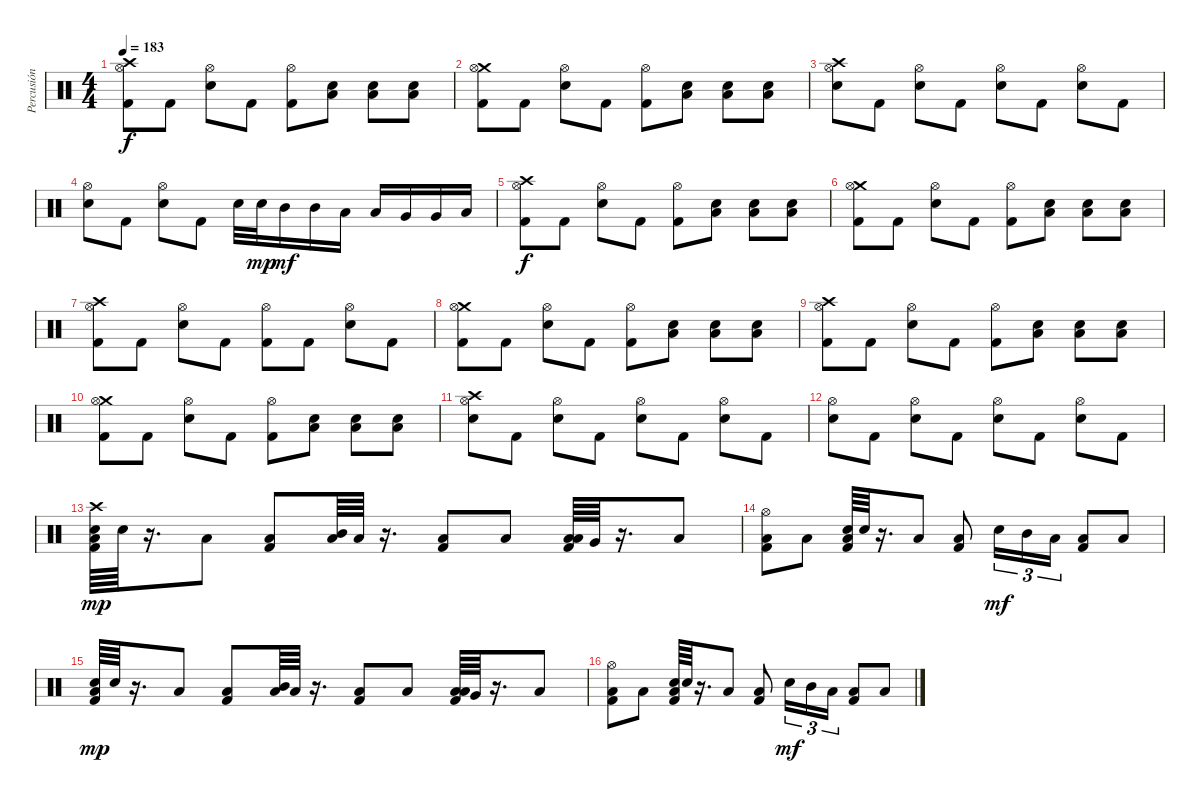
\track ("Percusión" "Percusión") {instrument percussion}
\staff {score}
\articulation defaults
\ts (4 4)
\tempo 183
\clef neutral
\ks c
("Crash high (hit)" "Hi-Hat (open)" "Kick (hit) 2").8{dy f} "Kick (hit) 2".8 ("Hi-Hat (open)" "Electric Snare (hit)").8 "Kick (hit) 2".8 ("Hi-Hat (open)" "Kick (hit) 2").8 ("Low Floor Tom (hit)" "Electric Snare (hit)").8 ("Low Floor Tom (hit)" "Electric Snare (hit)").8 ("Low Floor Tom (hit)" "Electric Snare (hit)").8 |
("Crash medium (hit)" "Hi-Hat (open)" "Kick (hit) 2").8 "Kick (hit) 2".8 ("Hi-Hat (open)" "Electric Snare (hit)").8 "Kick (hit) 2".8 ("Hi-Hat (open)" "Kick (hit) 2").8 ("Low Floor Tom (hit)" "Electric Snare (hit)").8 ("Low Floor Tom (hit)" "Electric Snare (hit)").8 ("Low Floor Tom (hit)" "Electric Snare (hit)").8 |
("Crash high (hit)" "Hi-Hat (open)" "Electric Snare (hit)").8 "Kick (hit) 2".8 ("Hi-Hat (open)" "Electric Snare (hit)").8 "Kick (hit) 2".8 ("Hi-Hat (open)" "Electric Snare (hit)").8 "Kick (hit) 2".8 ("Hi-Hat (open)" "Electric Snare (hit)").8 "Kick (hit) 2".8 |
("Hi-Hat (open)" "Electric Snare (hit)").8 "Kick (hit) 2".8 ("Hi-Hat (open)" "Electric Snare (hit)").8 "Kick (hit) 2".8 "Electric Snare (hit)".32 "Electric Snare (hit)".32{dy mp} "Mid Tom (hit)".16{dy mf} "Mid Tom (hit)".16 "Low Tom (hit)".16 "Low Tom (hit)".16 "Very Low Tom (hit)".16 "Very Low Tom (hit)".16 "Low Floor Tom (hit)".16 |
("Crash high (hit)" "Hi-Hat (open)" "Kick (hit) 2").8{dy f} "Kick (hit) 2".8 ("Hi-Hat (open)" "Electric Snare (hit)").8 "Kick (hit) 2".8 ("Hi-Hat (open)" "Kick (hit) 2").8 ("Low Floor Tom (hit)" "Electric Snare (hit)").8 ("Low Floor Tom (hit)" "Electric Snare (hit)").8 ("Low Floor Tom (hit)" "Electric Snare (hit)").8 |
("Crash medium (hit)" "Hi-Hat (open)" "Kick (hit) 2").8 "Kick (hit) 2".8 ("Hi-Hat (open)" "Electric Snare (hit)").8 "Kick (hit) 2".8 ("Hi-Hat (open)" "Kick (hit) 2").8 ("Low Floor Tom (hit)" "Electric Snare (hit)").8 ("Low Floor Tom (hit)" "Electric Snare (hit)").8 ("Low Floor Tom (hit)" "Electric Snare (hit)").8 |
("Crash high (hit)" "Hi-Hat (open)" "Kick (hit) 2").8 "Kick (hit) 2".8 ("Hi-Hat (open)" "Electric Snare (hit)").8 "Kick (hit) 2".8 ("Hi-Hat (open)" "Kick (hit) 2").8 "Kick (hit) 2".8 ("Hi-Hat (open)" "Electric Snare (hit)").8 "Kick (hit) 2".8 |
("Crash medium (hit)" "Hi-Hat (open)" "Kick (hit) 2").8 "Kick (hit) 2".8 ("Hi-Hat (open)" "Electric Snare (hit)").8 "Kick (hit) 2".8 ("Hi-Hat (open)" "Kick (hit) 2").8 ("Low Floor Tom (hit)" "Electric Snare (hit)").8 ("Low Floor Tom (hit)" "Electric Snare (hit)").8 ("Low Floor Tom (hit)" "Electric Snare (hit)").8 |
("Crash high (hit)" "Hi-Hat (open)" "Kick (hit) 2").8 "Kick (hit) 2".8 ("Hi-Hat (open)" "Electric Snare (hit)").8 "Kick (hit) 2".8 ("Hi-Hat (open)" "Kick (hit) 2").8 ("Low Floor Tom (hit)" "Electric Snare (hit)").8 ("Low Floor Tom (hit)" "Electric Snare (hit)").8 ("Low Floor Tom (hit)" "Electric Snare (hit)").8 |
("Crash medium (hit)" "Hi-Hat (open)" "Kick (hit) 2").8 "Kick (hit) 2".8 ("Hi-Hat (open)" "Electric Snare (hit)").8 "Kick (hit) 2".8 ("Hi-Hat (open)" "Kick (hit) 2").8 ("Low Floor Tom (hit)" "Electric Snare (hit)").8 ("Low Floor Tom (hit)" "Electric Snare (hit)").8 ("Low Floor Tom (hit)" "Electric Snare (hit)").8 |
("Crash high (hit)" "Hi-Hat (open)" "Electric Snare (hit)").8 "Kick (hit) 2".8 ("Hi-Hat (open)" "Electric Snare (hit)").8 "Kick (hit) 2".8 ("Hi-Hat (open)" "Electric Snare (hit)").8 "Kick (hit) 2".8 ("Hi-Hat (open)" "Electric Snare (hit)").8 "Kick (hit) 2".8 |
("Hi-Hat (open)" "Electric Snare (hit)").8 "Kick (hit) 2".8 ("Hi-Hat (open)" "Electric Snare (hit)").8 "Kick (hit) 2".8 ("Hi-Hat (open)" "Electric Snare (hit)").8 "Kick (hit) 2".8 ("Hi-Hat (open)" "Electric Snare (hit)").8 "Kick (hit) 2".8 |
("Crash high (hit)" "Low Floor Tom (hit)" "Electric Snare (hit)" "Kick (hit) 2").64{dy mp} "Electric Snare (hit)".64 r.16{d} "Low Floor Tom (hit)".8 ("Low Floor Tom (hit)" "Kick (hit) 2").8 ("Low Floor Tom (hit)" "Mid Tom (hit)").64 "Low Tom (hit)".64 r.16{d} ("Low Floor Tom (hit)" "Kick (hit) 2").8 "Low Floor Tom (hit)".8 ("Low Floor Tom (hit)" "Low Tom (hit)" "Kick (hit) 2").64 "Very Low Tom (hit)".64 r.16{d} "Low Floor Tom (hit)".8 |
("Low Floor Tom (hit)" "Hi-Hat (open)" "Kick (hit) 2").8 "Low Floor Tom (hit)".8 ("Low Floor Tom (hit)" "Electric Snare (hit)" "Kick (hit) 2").64 "Electric Snare (hit)".64 r.16{d} "Low Floor Tom (hit)".8 ("Low Floor Tom (hit)" "Kick (hit) 2").8 "Electric Snare (hit)".16{tu (3 2) dy mf} "Mid Tom (hit)".16{tu (3 2)} "Low Tom (hit)".16{tu (3 2)} ("Low Tom (hit)" "Kick (hit) 2").8 "Low Floor Tom (hit)".8 |
("Low Floor Tom (hit)" "Electric Snare (hit)" "Kick (hit) 2").64{dy mp} "Electric Snare (hit)".64 r.16{d} "Low Floor Tom (hit)".8 ("Low Floor Tom (hit)" "Kick (hit) 2").8 ("Low Floor Tom (hit)" "Mid Tom (hit)").64 "Low Tom (hit)".64 r.16{d} ("Low Floor Tom (hit)" "Kick (hit) 2").8 "Low Floor Tom (hit)".8 ("Low Floor Tom (hit)" "Low Tom (hit)" "Kick (hit) 2").64 "Very Low Tom (hit)".64 r.16{d} "Low Floor Tom (hit)".8 |
("Low Floor Tom (hit)" "Hi-Hat (open)" "Kick (hit) 2").8 "Low Floor Tom (hit)".8 ("Low Floor Tom (hit)" "Electric Snare (hit)" "Kick (hit) 2").64 "Electric Snare (hit)".64 r.16{d} "Low Floor Tom (hit)".8 ("Low Floor Tom (hit)" "Kick (hit) 2").8 "Electric Snare (hit)".16{tu (3 2) dy mf} "Mid Tom (hit)".16{tu (3 2)} "Low Tom (hit)".16{tu (3 2)} ("Low Tom (hit)" "Kick (hit) 2").8 "Low Floor Tom (hit)".8
